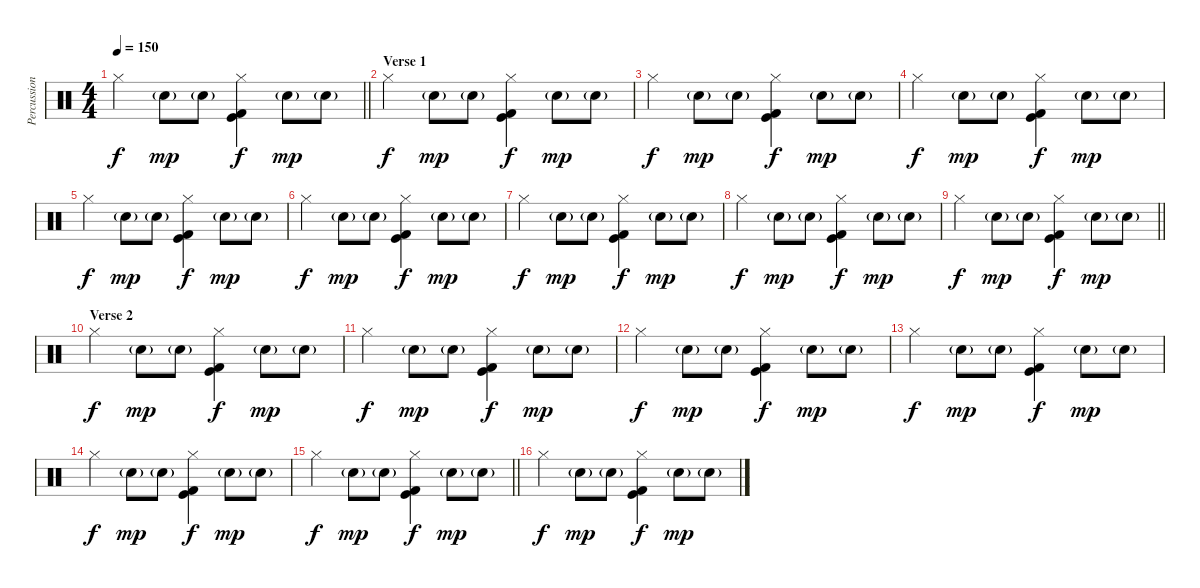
\track ("Percussion" "Percussion") {instrument percussion}
\staff {score}
\articulation defaults
\ts (4 4)
\tempo 150
\clef neutral
\barLineRight lightlight
\ks c "Hi-Hat (closed)".4{dy f} "Hand Clap (hit)"{g}.8{dy mp} "Hand Clap (hit)"{g}.8
("Hi-Hat (closed)" "Kick (hit)" "Kick (hit) 2").4{dy f} "Hand Clap (hit)"{g}.8{dy mp} "Hand Clap (hit)"{g}.8 |
\section ("" "Verse 1")
"Hi-Hat (closed)".4{dy f} "Hand Clap (hit)"{g}.8{dy mp} "Hand Clap (hit)"{g}.8 ("Hi-Hat (closed)" "Kick (hit)" "Kick (hit) 2").4{dy f} "Hand Clap (hit)"{g}.8{dy mp} "Hand Clap (hit)"{g}.8 |
"Hi-Hat (closed)".4{dy f} "Hand Clap (hit)"{g}.8{dy mp} "Hand Clap (hit)"{g}.8 ("Hi-Hat (closed)" "Kick (hit)" "Kick (hit) 2").4{dy f} "Hand Clap (hit)"{g}.8{dy mp} "Hand Clap (hit)"{g}.8 |
"Hi-Hat (closed)".4{dy f} "Hand Clap (hit)"{g}.8{dy mp} "Hand Clap (hit)"{g}.8 ("Hi-Hat (closed)" "Kick (hit)" "Kick (hit) 2").4{dy f} "Hand Clap (hit)"{g}.8{dy mp} "Hand Clap (hit)"{g}.8 |
"Hi-Hat (closed)".4{dy f} "Hand Clap (hit)"{g}.8{dy mp} "Hand Clap (hit)"{g}.8 ("Hi-Hat (closed)" "Kick (hit)" "Kick (hit) 2").4{dy f} "Hand Clap (hit)"{g}.8{dy mp} "Hand Clap (hit)"{g}.8 |
"Hi-Hat (closed)".4{dy f} "Hand Clap (hit)"{g}.8{dy mp} "Hand Clap (hit)"{g}.8 ("Hi-Hat (closed)" "Kick (hit)" "Kick (hit) 2").4{dy f} "Hand Clap (hit)"{g}.8{dy mp} "Hand Clap (hit)"{g}.8 |
"Hi-Hat (closed)".4{dy f} "Hand Clap (hit)"{g}.8{dy mp} "Hand Clap (hit)"{g}.8 ("Hi-Hat (closed)" "Kick (hit)" "Kick (hit) 2").4{dy f} "Hand Clap (hit)"{g}.8{dy mp} "Hand Clap (hit)"{g}.8 |
"Hi-Hat (closed)".4{dy f} "Hand Clap (hit)"{g}.8{dy mp} "Hand Clap (hit)"{g}.8 ("Hi-Hat (closed)" "Kick (hit)" "Kick (hit) 2").4{dy f} "Hand Clap (hit)"{g}.8{dy mp} "Hand Clap (hit)"{g}.8 |
\barLineRight lightlight "Hi-Hat (closed)".4{dy f} "Hand Clap (hit)"{g}.8{dy mp} "Hand Clap (hit)"{g}.8
("Hi-Hat (closed)" "Kick (hit)" "Kick (hit) 2").4{dy f} "Hand Clap (hit)"{g}.8{dy mp} "Hand Clap (hit)"{g}.8 |
\section ("" "Verse 2")
"Hi-Hat (closed)".4{dy f} "Hand Clap (hit)"{g}.8{dy mp} "Hand Clap (hit)"{g}.8 ("Hi-Hat (closed)" "Kick (hit)" "Kick (hit) 2").4{dy f} "Hand Clap (hit)"{g}.8{dy mp} "Hand Clap (hit)"{g}.8 |
"Hi-Hat (closed)".4{dy f} "Hand Clap (hit)"{g}.8{dy mp} "Hand Clap (hit)"{g}.8 ("Hi-Hat (closed)" "Kick (hit)" "Kick (hit) 2").4{dy f} "Hand Clap (hit)"{g}.8{dy mp} "Hand Clap (hit)"{g}.8 |
"Hi-Hat (closed)".4{dy f} "Hand Clap (hit)"{g}.8{dy mp} "Hand Clap (hit)"{g}.8 ("Hi-Hat (closed)" "Kick (hit)" "Kick (hit) 2").4{dy f} "Hand Clap (hit)"{g}.8{dy mp} "Hand Clap (hit)"{g}.8 |
"Hi-Hat (closed)".4{dy f} "Hand Clap (hit)"{g}.8{dy mp} "Hand Clap (hit)"{g}.8 ("Hi-Hat (closed)" "Kick (hit)" "Kick (hit) 2").4{dy f} "Hand Clap (hit)"{g}.8{dy mp} "Hand Clap (hit)"{g}.8 |
"Hi-Hat (closed)".4{dy f} "Hand Clap (hit)"{g}.8{dy mp} "Hand Clap (hit)"{g}.8 ("Hi-Hat (closed)" "Kick (hit)" "Kick (hit) 2").4{dy f} "Hand Clap (hit)"{g}.8{dy mp} "Hand Clap (hit)"{g}.8 |
\barLineRight lightlight "Hi-Hat (closed)".4{dy f} "Hand Clap (hit)"{g}.8{dy mp} "Hand Clap (hit)"{g}.8
("Hi-Hat (closed)" "Kick (hit)" "Kick (hit) 2").4{dy f} "Hand Clap (hit)"{g}.8{dy mp} "Hand Clap (hit)"{g}.8 |
\section ("" "")
"Hi-Hat (closed)".4{dy f} "Hand Clap (hit)"{g}.8{dy mp} "Hand Clap (hit)"{g}.8 ("Hi-Hat (closed)" "Kick (hit)" "Kick (hit) 2").4{dy f} "Hand Clap (hit)"{g}.8{dy mp} "Hand Clap (hit)"{g}.8
